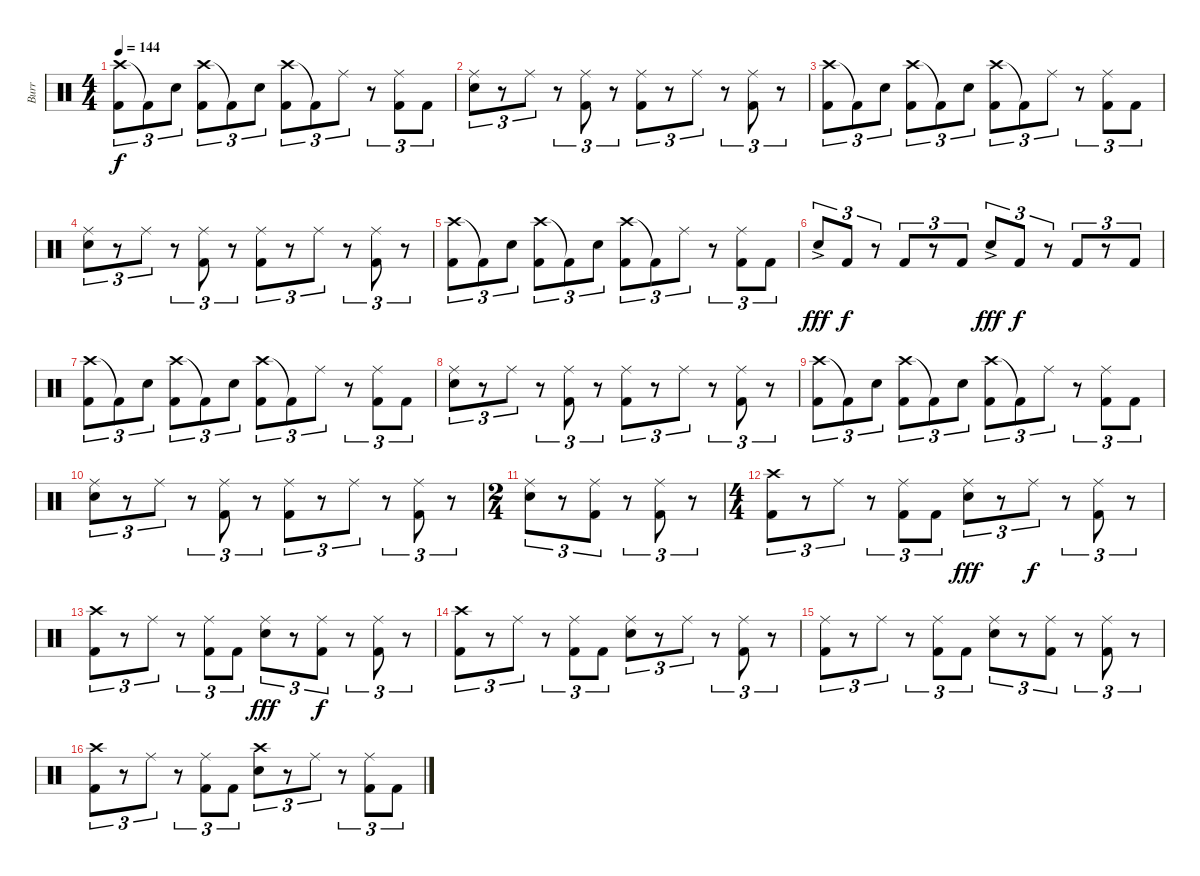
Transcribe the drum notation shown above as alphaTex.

\track ("Burr" "Burr") {instrument percussion}
\staff {score}
\articulation defaults
\ts (4 4)
\tempo 144
\clef neutral
\ks c
("Crash high (hit)" "Kick (hit) 2").8{tu (3 2) dy f} "Kick (hit) 2"{t}.8{tu (3 2)} "Snare (hit) 2".8{tu (3 2)} ("Crash high (hit)" "Kick (hit) 2").8{tu (3 2)} "Kick (hit) 2"{t}.8{tu (3 2)} "Snare (hit) 2".8{tu (3 2)} ("Crash high (hit)" "Kick (hit) 2").8{tu (3 2)} "Kick (hit) 2"{t}.8{tu (3 2)} "Ride (middle)".8{tu (3 2)} r.8{tu (3 2)} ("Ride (middle)" "Kick (hit) 2").8{tu (3 2)} "Kick (hit) 2".8{tu (3 2)} |
("Ride (middle)" "Snare (hit) 2").8{tu (3 2)} r.8{tu (3 2)} "Ride (middle)".8{tu (3 2)} r.8{tu (3 2)} ("Ride (middle)" "Kick (hit) 2").8{tu (3 2)} r.8{tu (3 2)} ("Ride (middle)" "Kick (hit) 2").8{tu (3 2)} r.8{tu (3 2)} "Ride (middle)".8{tu (3 2)} r.8{tu (3 2)} ("Ride (middle)" "Kick (hit) 2").8{tu (3 2)} r.8{tu (3 2)} |
("Crash high (hit)" "Kick (hit) 2").8{tu (3 2)} "Kick (hit) 2"{t}.8{tu (3 2)} "Snare (hit) 2".8{tu (3 2)} ("Crash high (hit)" "Kick (hit) 2").8{tu (3 2)} "Kick (hit) 2"{t}.8{tu (3 2)} "Snare (hit) 2".8{tu (3 2)} ("Crash high (hit)" "Kick (hit) 2").8{tu (3 2)} "Kick (hit) 2"{t}.8{tu (3 2)} "Ride (middle)".8{tu (3 2)} r.8{tu (3 2)} ("Ride (middle)" "Kick (hit) 2").8{tu (3 2)} "Kick (hit) 2".8{tu (3 2)} |
("Ride (middle)" "Snare (hit) 2").8{tu (3 2)} r.8{tu (3 2)} "Ride (middle)".8{tu (3 2)} r.8{tu (3 2)} ("Ride (middle)" "Kick (hit) 2").8{tu (3 2)} r.8{tu (3 2)} ("Ride (middle)" "Kick (hit) 2").8{tu (3 2)} r.8{tu (3 2)} "Ride (middle)".8{tu (3 2)} r.8{tu (3 2)} ("Ride (middle)" "Kick (hit) 2").8{tu (3 2)} r.8{tu (3 2)} |
("Crash high (hit)" "Kick (hit) 2").8{tu (3 2)} "Kick (hit) 2"{t}.8{tu (3 2)} "Snare (hit) 2".8{tu (3 2)} ("Crash high (hit)" "Kick (hit) 2").8{tu (3 2)} "Kick (hit) 2"{t}.8{tu (3 2)} "Snare (hit) 2".8{tu (3 2)} ("Crash high (hit)" "Kick (hit) 2").8{tu (3 2)} "Kick (hit) 2"{t}.8{tu (3 2)} "Ride (middle)".8{tu (3 2)} r.8{tu (3 2)} ("Ride (middle)" "Kick (hit) 2").8{tu (3 2)} "Kick (hit) 2".8{tu (3 2)} |
"Snare (hit) 2"{ac}.8{tu (3 2) dy fff} "Kick (hit) 2".8{tu (3 2) dy f} r.8{tu (3 2)} "Kick (hit) 2".8{tu (3 2)} r.8{tu (3 2)} "Kick (hit) 2".8{tu (3 2)} "Snare (hit) 2"{ac}.8{tu (3 2) dy fff} "Kick (hit) 2".8{tu (3 2) dy f} r.8{tu (3 2)} "Kick (hit) 2".8{tu (3 2)} r.8{tu (3 2)} "Kick (hit) 2".8{tu (3 2)} |
("Crash high (hit)" "Kick (hit) 2").8{tu (3 2)} "Kick (hit) 2"{t}.8{tu (3 2)} "Snare (hit) 2".8{tu (3 2)} ("Crash high (hit)" "Kick (hit) 2").8{tu (3 2)} "Kick (hit) 2"{t}.8{tu (3 2)} "Snare (hit) 2".8{tu (3 2)} ("Crash high (hit)" "Kick (hit) 2").8{tu (3 2)} "Kick (hit) 2"{t}.8{tu (3 2)} "Ride (middle)".8{tu (3 2)} r.8{tu (3 2)} ("Ride (middle)" "Kick (hit) 2").8{tu (3 2)} "Kick (hit) 2".8{tu (3 2)} |
("Ride (middle)" "Snare (hit) 2").8{tu (3 2)} r.8{tu (3 2)} "Ride (middle)".8{tu (3 2)} r.8{tu (3 2)} ("Ride (middle)" "Kick (hit) 2").8{tu (3 2)} r.8{tu (3 2)} ("Ride (middle)" "Kick (hit) 2").8{tu (3 2)} r.8{tu (3 2)} "Ride (middle)".8{tu (3 2)} r.8{tu (3 2)} ("Ride (middle)" "Kick (hit) 2").8{tu (3 2)} r.8{tu (3 2)} |
("Crash high (hit)" "Kick (hit) 2").8{tu (3 2)} "Kick (hit) 2"{t}.8{tu (3 2)} "Snare (hit) 2".8{tu (3 2)} ("Crash high (hit)" "Kick (hit) 2").8{tu (3 2)} "Kick (hit) 2"{t}.8{tu (3 2)} "Snare (hit) 2".8{tu (3 2)} ("Crash high (hit)" "Kick (hit) 2").8{tu (3 2)} "Kick (hit) 2"{t}.8{tu (3 2)} "Ride (middle)".8{tu (3 2)} r.8{tu (3 2)} ("Ride (middle)" "Kick (hit) 2").8{tu (3 2)} "Kick (hit) 2".8{tu (3 2)} |
("Ride (middle)" "Snare (hit) 2").8{tu (3 2)} r.8{tu (3 2)} "Ride (middle)".8{tu (3 2)} r.8{tu (3 2)} ("Ride (middle)" "Kick (hit) 2").8{tu (3 2)} r.8{tu (3 2)} ("Ride (middle)" "Kick (hit) 2").8{tu (3 2)} r.8{tu (3 2)} "Ride (middle)".8{tu (3 2)} r.8{tu (3 2)} ("Ride (middle)" "Kick (hit) 2").8{tu (3 2)} r.8{tu (3 2)} |
\ts (2 4)
("Ride (middle)" "Snare (hit) 2").8{tu (3 2)} r.8{tu (3 2)} ("Ride (middle)" "Kick (hit) 2").8{tu (3 2)} r.8{tu (3 2)} ("Ride (middle)" "Kick (hit) 2").8{tu (3 2)} r.8{tu (3 2)} |
\ts (4 4)
("Crash high (hit)" "Kick (hit) 2").8{tu (3 2)} r.8{tu (3 2)} "Ride (middle)".8{tu (3 2)} r.8{tu (3 2)} ("Ride (middle)" "Kick (hit) 2").8{tu (3 2)} "Kick (hit) 2".8{tu (3 2)} ("Ride (middle)" "Snare (hit) 2").8{tu (3 2) dy fff} r.8{tu (3 2)} "Ride (middle)".8{tu (3 2) dy f} r.8{tu (3 2)} ("Ride (middle)" "Kick (hit) 2").8{tu (3 2)} r.8{tu (3 2)} |
("Crash high (hit)" "Kick (hit) 2").8{tu (3 2)} r.8{tu (3 2)} "Ride (middle)".8{tu (3 2)} r.8{tu (3 2)} ("Ride (middle)" "Kick (hit) 2").8{tu (3 2)} "Kick (hit) 2".8{tu (3 2)} ("Ride (middle)" "Snare (hit) 2").8{tu (3 2) dy fff} r.8{tu (3 2)} ("Ride (middle)" "Kick (hit) 2").8{tu (3 2) dy f} r.8{tu (3 2)} ("Ride (middle)" "Kick (hit) 2").8{tu (3 2)} r.8{tu (3 2)} |
("Crash high (hit)" "Kick (hit) 2").8{tu (3 2)} r.8{tu (3 2)} "Ride (middle)".8{tu (3 2)} r.8{tu (3 2)} ("Ride (middle)" "Kick (hit) 2").8{tu (3 2)} "Kick (hit) 2".8{tu (3 2)} ("Ride (middle)" "Snare (hit) 2").8{tu (3 2)} r.8{tu (3 2)} "Ride (middle)".8{tu (3 2)} r.8{tu (3 2)} ("Ride (middle)" "Kick (hit) 2").8{tu (3 2)} r.8{tu (3 2)} |
("Ride (middle)" "Kick (hit) 2").8{tu (3 2)} r.8{tu (3 2)} "Ride (middle)".8{tu (3 2)} r.8{tu (3 2)} ("Ride (middle)" "Kick (hit) 2").8{tu (3 2)} "Kick (hit) 2".8{tu (3 2)} ("Ride (middle)" "Snare (hit) 2").8{tu (3 2)} r.8{tu (3 2)} ("Ride (middle)" "Kick (hit) 2").8{tu (3 2)} r.8{tu (3 2)} ("Ride (middle)" "Kick (hit) 2").8{tu (3 2)} r.8{tu (3 2)} |
("Crash high (hit)" "Kick (hit) 2").8{tu (3 2)} r.8{tu (3 2)} "Ride (middle)".8{tu (3 2)} r.8{tu (3 2)} ("Ride (middle)" "Kick (hit) 2").8{tu (3 2)} "Kick (hit) 2".8{tu (3 2)} ("Crash high (hit)" "Snare (hit) 2").8{tu (3 2)} r.8{tu (3 2)} "Ride (middle)".8{tu (3 2)} r.8{tu (3 2)} ("Ride (middle)" "Kick (hit) 2").8{tu (3 2)} "Kick (hit) 2".8{tu (3 2)}
